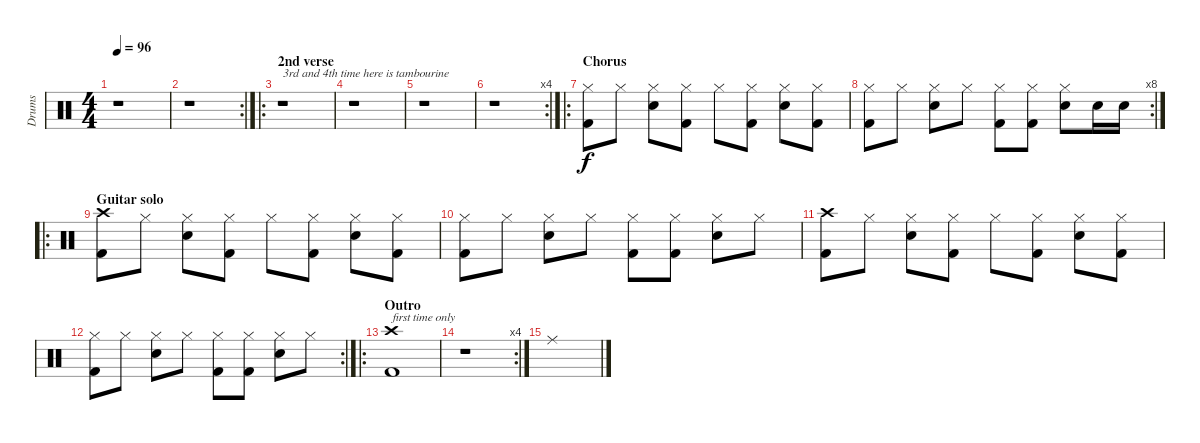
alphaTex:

\track ("Drums" "Drums") {instrument percussion}
\staff {score}
\articulation defaults
\ts (4 4)
\tempo 96
\clef neutral
\ks c
r.1{dy f} |
\rc 2
r.1 |
\ro
\section ("" "2nd verse")
r.1{txt "3rd and 4th time here is tambourine"} |
r.1 |
r.1 |
\rc 4
r.1 |
\ro
\section ("" "Chorus")
("Hi-Hat (closed)" "Kick (hit) 2").8 "Hi-Hat (closed)".8 ("Hi-Hat (closed)" "Electric Snare (hit)").8 ("Hi-Hat (closed)" "Kick (hit) 2").8 "Hi-Hat (closed)".8 ("Hi-Hat (closed)" "Kick (hit) 2").8 ("Hi-Hat (closed)" "Electric Snare (hit)").8 ("Hi-Hat (closed)" "Kick (hit) 2").8 |
\rc 8
("Hi-Hat (closed)" "Kick (hit) 2").8 "Hi-Hat (closed)".8 ("Hi-Hat (closed)" "Electric Snare (hit)").8 "Hi-Hat (closed)".8 ("Hi-Hat (closed)" "Kick (hit) 2").8 ("Hi-Hat (closed)" "Kick (hit) 2").8 ("Hi-Hat (closed)" "Electric Snare (hit)").8 "Electric Snare (hit)".16 "Electric Snare (hit)".16 |
\ro
\section ("" "Guitar solo")
("Crash high (hit)" "Kick (hit) 2").8 "Hi-Hat (closed)".8 ("Hi-Hat (closed)" "Electric Snare (hit)").8 ("Hi-Hat (closed)" "Kick (hit) 2").8 "Hi-Hat (closed)".8 ("Hi-Hat (closed)" "Kick (hit) 2").8 ("Hi-Hat (closed)" "Electric Snare (hit)").8 ("Hi-Hat (closed)" "Kick (hit) 2").8 |
("Hi-Hat (closed)" "Kick (hit) 2").8 "Hi-Hat (closed)".8 ("Hi-Hat (closed)" "Electric Snare (hit)").8 "Hi-Hat (closed)".8 ("Hi-Hat (closed)" "Kick (hit) 2").8 ("Hi-Hat (closed)" "Kick (hit) 2").8 ("Hi-Hat (closed)" "Electric Snare (hit)").8 "Hi-Hat (closed)".8 |
("Crash high (hit)" "Kick (hit) 2").8 "Hi-Hat (closed)".8 ("Hi-Hat (closed)" "Electric Snare (hit)").8 ("Hi-Hat (closed)" "Kick (hit) 2").8 "Hi-Hat (closed)".8 ("Hi-Hat (closed)" "Kick (hit) 2").8 ("Hi-Hat (closed)" "Electric Snare (hit)").8 ("Hi-Hat (closed)" "Kick (hit) 2").8 |
\rc 2
("Hi-Hat (closed)" "Kick (hit) 2").8 "Hi-Hat (closed)".8 ("Hi-Hat (closed)" "Electric Snare (hit)").8 "Hi-Hat (closed)".8 ("Hi-Hat (closed)" "Kick (hit) 2").8 ("Hi-Hat (closed)" "Kick (hit) 2").8 ("Hi-Hat (closed)" "Electric Snare (hit)").8 "Hi-Hat (closed)".8 |
\ro
\section ("" "Outro")
("Crash high (hit)" "Kick (hit) 2").1{txt "first time only"} |
\rc 4
r.1{volume 0} |
"Ride (middle)".1{volume 13}
